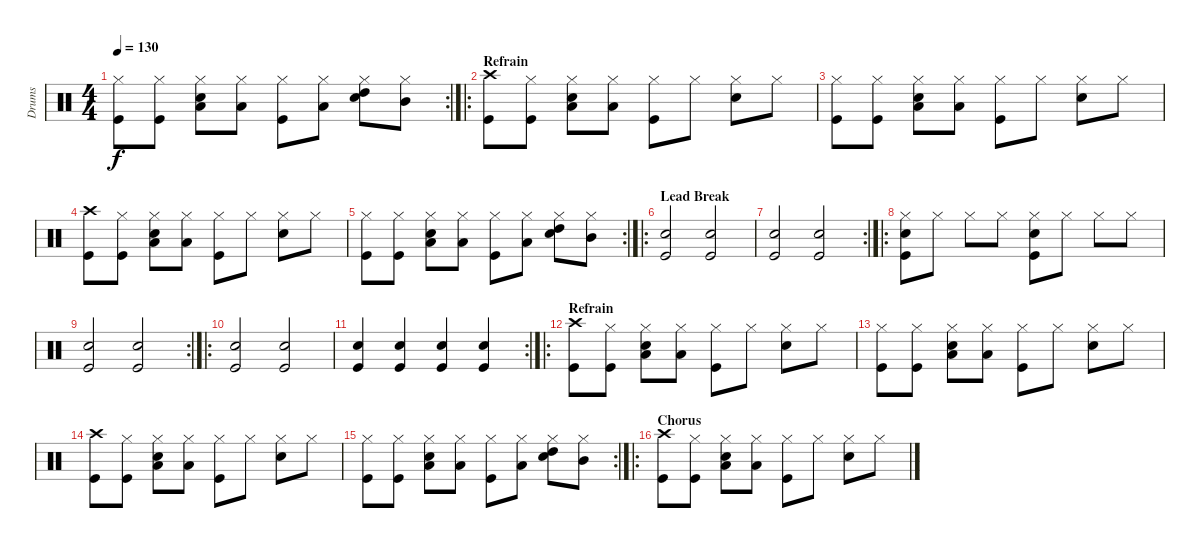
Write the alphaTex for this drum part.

\track ("Drums" "Drums") {instrument percussion}
\staff {score}
\articulation defaults
\rc 2
\ts (4 4)
\tempo 130
\clef neutral
\ks c
("Hi-Hat (closed)" "Kick (hit)").8{dy f} ("Hi-Hat (closed)" "Kick (hit)").8 ("Low Tom (hit)" "Hi-Hat (closed)" "Snare (hit) 2").8 ("Low Tom (hit)" "Hi-Hat (closed)").8 ("Hi-Hat (closed)" "Kick (hit)").8 ("Low Tom (hit)" "Hi-Hat (closed)").8 ("High Tom (hit)" "Hi-Hat (closed)" "Snare (hit) 2").8 ("Mid Tom (hit)" "Hi-Hat (closed)").8 |
\ro
\section ("" "Refrain")
("Crash high (hit)" "Kick (hit)").8 ("Hi-Hat (closed)" "Kick (hit)").8 ("Low Tom (hit)" "Hi-Hat (closed)" "Snare (hit) 2").8 ("Low Tom (hit)" "Hi-Hat (closed)").8 ("Hi-Hat (closed)" "Kick (hit)").8 "Hi-Hat (closed)".8 ("Hi-Hat (closed)" "Snare (hit) 2").8 "Hi-Hat (closed)".8 |
("Hi-Hat (closed)" "Kick (hit)").8 ("Hi-Hat (closed)" "Kick (hit)").8 ("Low Tom (hit)" "Hi-Hat (closed)" "Snare (hit) 2").8 ("Low Tom (hit)" "Hi-Hat (closed)").8 ("Hi-Hat (closed)" "Kick (hit)").8 "Hi-Hat (closed)".8 ("Hi-Hat (closed)" "Snare (hit) 2").8 "Hi-Hat (closed)".8 |
("Crash high (hit)" "Kick (hit)").8 ("Hi-Hat (closed)" "Kick (hit)").8 ("Low Tom (hit)" "Hi-Hat (closed)" "Snare (hit) 2").8 ("Low Tom (hit)" "Hi-Hat (closed)").8 ("Hi-Hat (closed)" "Kick (hit)").8 "Hi-Hat (closed)".8 ("Hi-Hat (closed)" "Snare (hit) 2").8 "Hi-Hat (closed)".8 |
\rc 2
("Hi-Hat (closed)" "Kick (hit)").8 ("Hi-Hat (closed)" "Kick (hit)").8 ("Low Tom (hit)" "Hi-Hat (closed)" "Snare (hit) 2").8 ("Low Tom (hit)" "Hi-Hat (closed)").8 ("Hi-Hat (closed)" "Kick (hit)").8 ("Low Tom (hit)" "Hi-Hat (closed)").8 ("High Tom (hit)" "Hi-Hat (closed)" "Snare (hit) 2").8 ("Mid Tom (hit)" "Hi-Hat (closed)").8 |
\ro
\section ("" "Lead Break")
("Kick (hit)" "Snare (hit) 2").2 ("Kick (hit)" "Snare (hit) 2").2 |
\rc 2
("Kick (hit)" "Snare (hit) 2").2 ("Kick (hit)" "Snare (hit) 2").2 |
\ro
("Hi-Hat (closed)" "Kick (hit)" "Snare (hit) 2").8 "Hi-Hat (closed)".8 "Hi-Hat (closed)".8 "Hi-Hat (closed)".8 ("Hi-Hat (closed)" "Kick (hit)" "Snare (hit) 2").8 "Hi-Hat (closed)".8 "Hi-Hat (closed)".8 "Hi-Hat (closed)".8 |
\rc 2
("Kick (hit)" "Snare (hit) 2").2 ("Kick (hit)" "Snare (hit) 2").2 |
\ro
("Kick (hit)" "Snare (hit) 2").2 ("Kick (hit)" "Snare (hit) 2").2 |
\rc 2
("Kick (hit)" "Snare (hit) 2").4 ("Kick (hit)" "Snare (hit) 2").4 ("Snare (hit) 2" "Kick (hit)").4 ("Snare (hit) 2" "Kick (hit)").4 |
\ro
\section ("" "Refrain")
("Crash high (hit)" "Kick (hit)").8 ("Hi-Hat (closed)" "Kick (hit)").8 ("Low Tom (hit)" "Hi-Hat (closed)" "Snare (hit) 2").8 ("Low Tom (hit)" "Hi-Hat (closed)").8 ("Hi-Hat (closed)" "Kick (hit)").8 "Hi-Hat (closed)".8 ("Hi-Hat (closed)" "Snare (hit) 2").8 "Hi-Hat (closed)".8 |
("Hi-Hat (closed)" "Kick (hit)").8 ("Hi-Hat (closed)" "Kick (hit)").8 ("Low Tom (hit)" "Hi-Hat (closed)" "Snare (hit) 2").8 ("Low Tom (hit)" "Hi-Hat (closed)").8 ("Hi-Hat (closed)" "Kick (hit)").8 "Hi-Hat (closed)".8 ("Hi-Hat (closed)" "Snare (hit) 2").8 "Hi-Hat (closed)".8 |
("Crash high (hit)" "Kick (hit)").8 ("Hi-Hat (closed)" "Kick (hit)").8 ("Low Tom (hit)" "Hi-Hat (closed)" "Snare (hit) 2").8 ("Low Tom (hit)" "Hi-Hat (closed)").8 ("Hi-Hat (closed)" "Kick (hit)").8 "Hi-Hat (closed)".8 ("Hi-Hat (closed)" "Snare (hit) 2").8 "Hi-Hat (closed)".8 |
\rc 2
("Hi-Hat (closed)" "Kick (hit)").8 ("Hi-Hat (closed)" "Kick (hit)").8 ("Low Tom (hit)" "Hi-Hat (closed)" "Snare (hit) 2").8 ("Low Tom (hit)" "Hi-Hat (closed)").8 ("Hi-Hat (closed)" "Kick (hit)").8 ("Low Tom (hit)" "Hi-Hat (closed)").8 ("High Tom (hit)" "Hi-Hat (closed)" "Snare (hit) 2").8 ("Mid Tom (hit)" "Hi-Hat (closed)").8 |
\ro
\section ("" "Chorus")
("Crash high (hit)" "Kick (hit)").8 ("Hi-Hat (closed)" "Kick (hit)").8 ("Low Tom (hit)" "Hi-Hat (closed)" "Snare (hit) 2").8 ("Low Tom (hit)" "Hi-Hat (closed)").8 ("Hi-Hat (closed)" "Kick (hit)").8 "Hi-Hat (closed)".8 ("Hi-Hat (closed)" "Snare (hit) 2").8 "Hi-Hat (closed)".8
